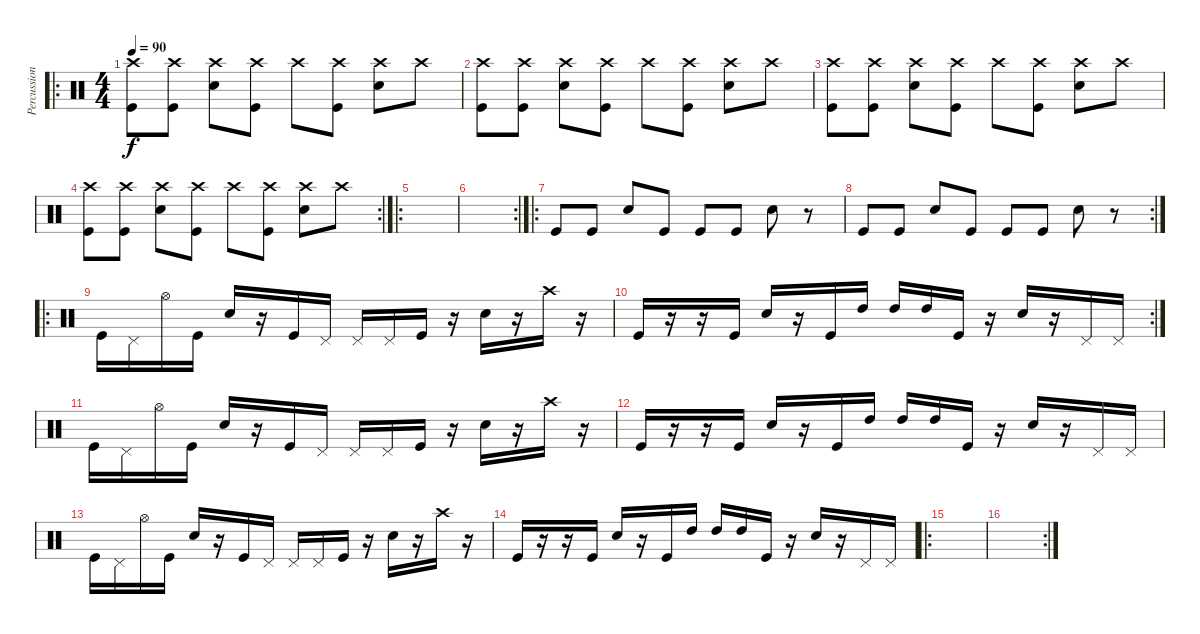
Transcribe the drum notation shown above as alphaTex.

\track ("Percussions" "Percussion") {instrument percussion}
\staff {score}
\articulation defaults
\ro
\ts (4 4)
\tempo 90
\clef neutral
\ks c
("Crash high (hit)" "Kick (hit)").8{dy f} ("Crash high (hit)" "Kick (hit)").8 ("Crash high (hit)" "Electric Snare (hit)").8 ("Crash high (hit)" "Kick (hit)").8 "Crash high (hit)".8 ("Crash high (hit)" "Kick (hit)").8 ("Crash high (hit)" "Electric Snare (hit)").8 "Crash high (hit)".8 |
("Crash high (hit)" "Kick (hit)").8 ("Crash high (hit)" "Kick (hit)").8 ("Crash high (hit)" "Electric Snare (hit)").8 ("Crash high (hit)" "Kick (hit)").8 "Crash high (hit)".8 ("Crash high (hit)" "Kick (hit)").8 ("Crash high (hit)" "Electric Snare (hit)").8 "Crash high (hit)".8 |
("Crash high (hit)" "Kick (hit)").8 ("Crash high (hit)" "Kick (hit)").8 ("Crash high (hit)" "Electric Snare (hit)").8 ("Crash high (hit)" "Kick (hit)").8 "Crash high (hit)".8 ("Crash high (hit)" "Kick (hit)").8 ("Crash high (hit)" "Electric Snare (hit)").8 "Crash high (hit)".8 |
\rc 2
("Crash high (hit)" "Kick (hit)").8 ("Crash high (hit)" "Kick (hit)").8 ("Crash high (hit)" "Electric Snare (hit)").8 ("Crash high (hit)" "Kick (hit)").8 "Crash high (hit)".8 ("Crash high (hit)" "Kick (hit)").8 ("Crash high (hit)" "Electric Snare (hit)").8 "Crash high (hit)".8 |
\ro
|
\rc 2
|
\ro "Kick (hit)".8 "Kick (hit)".8 "Electric Snare (hit)".8 "Kick (hit)".8 "Kick (hit)".8 "Kick (hit)".8 "Electric Snare (hit)".8
r.8 |
\rc 2 "Kick (hit)".8 "Kick (hit)".8 "Electric Snare (hit)".8 "Kick (hit)".8 "Kick (hit)".8 "Kick (hit)".8 "Electric Snare (hit)".8
r.8 |
\ro "Kick (hit)".16 "Pedal Hi-Hat (hit)".16 "Hi-Hat (open)".16 "Kick (hit)".16 "Electric Snare (hit)".16
r.16 "Kick (hit)".16 "Pedal Hi-Hat (hit)".16 "Pedal Hi-Hat (hit)".16 "Pedal Hi-Hat (hit)".16 "Kick (hit)".16 r.16 "Electric Snare (hit)".16 r.16 "Crash high (hit)".16 r.16 |
\rc 2 "Kick (hit)".16
r.16 r.16 "Kick (hit)".16 "Electric Snare (hit)".16 r.16 "Kick (hit)".16 "High Tom (hit)".16 "High Tom (hit)".16 "High Tom (hit)".16 "Kick (hit)".16 r.16 "Electric Snare (hit)".16 r.16 "Pedal Hi-Hat (hit)".16 "Pedal Hi-Hat (hit)".16 |
"Kick (hit)".16 "Pedal Hi-Hat (hit)".16 "Hi-Hat (open)".16 "Kick (hit)".16 "Electric Snare (hit)".16 r.16 "Kick (hit)".16 "Pedal Hi-Hat (hit)".16 "Pedal Hi-Hat (hit)".16 "Pedal Hi-Hat (hit)".16 "Kick (hit)".16 r.16 "Electric Snare (hit)".16 r.16 "Crash high (hit)".16 r.16 |
"Kick (hit)".16 r.16 r.16 "Kick (hit)".16 "Electric Snare (hit)".16 r.16 "Kick (hit)".16 "High Tom (hit)".16 "High Tom (hit)".16 "High Tom (hit)".16 "Kick (hit)".16 r.16 "Electric Snare (hit)".16 r.16 "Pedal Hi-Hat (hit)".16 "Pedal Hi-Hat (hit)".16 |
"Kick (hit)".16 "Pedal Hi-Hat (hit)".16 "Hi-Hat (open)".16 "Kick (hit)".16 "Electric Snare (hit)".16 r.16 "Kick (hit)".16 "Pedal Hi-Hat (hit)".16 "Pedal Hi-Hat (hit)".16 "Pedal Hi-Hat (hit)".16 "Kick (hit)".16 r.16 "Electric Snare (hit)".16 r.16 "Crash high (hit)".16 r.16 |
"Kick (hit)".16 r.16 r.16 "Kick (hit)".16 "Electric Snare (hit)".16 r.16 "Kick (hit)".16 "High Tom (hit)".16 "High Tom (hit)".16 "High Tom (hit)".16 "Kick (hit)".16 r.16 "Electric Snare (hit)".16 r.16 "Pedal Hi-Hat (hit)".16 "Pedal Hi-Hat (hit)".16 |
\ro
|
\rc 2
